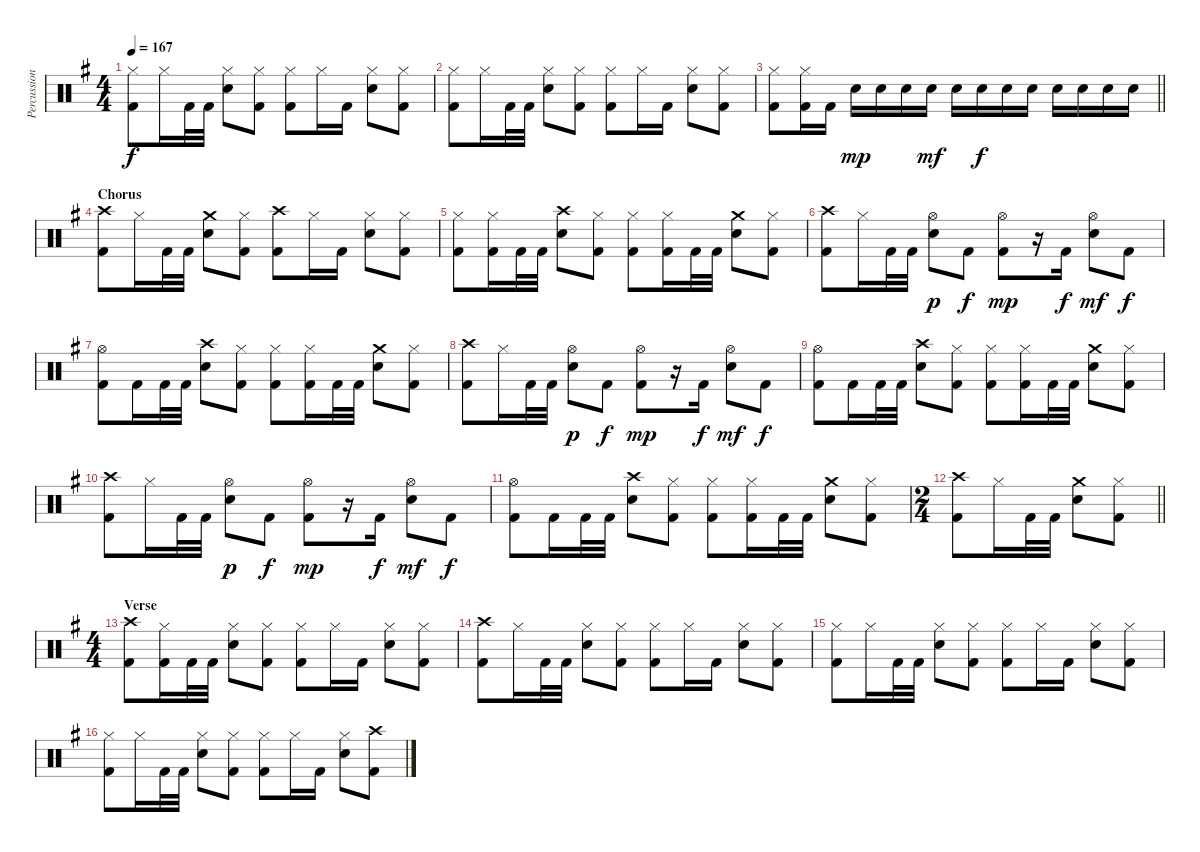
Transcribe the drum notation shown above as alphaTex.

\track ("Percussion" "Percussion") {instrument percussion}
\staff {score}
\articulation defaults
\ts (4 4)
\tempo 167
\clef neutral
\ks g
("Hi-Hat (closed)" "Kick (hit) 2").8{dy f} "Hi-Hat (closed)".16 "Kick (hit) 2".32 "Kick (hit) 2".32 ("Hi-Hat (closed)" "Snare (hit) 2").8 ("Hi-Hat (closed)" "Kick (hit) 2").8 ("Hi-Hat (closed)" "Kick (hit) 2").8 "Hi-Hat (closed)".16 "Kick (hit) 2".16 ("Hi-Hat (closed)" "Snare (hit) 2").8 ("Hi-Hat (closed)" "Kick (hit) 2").8 |
("Hi-Hat (closed)" "Kick (hit) 2").8 "Hi-Hat (closed)".16 "Kick (hit) 2".32 "Kick (hit) 2".32 ("Hi-Hat (closed)" "Snare (hit) 2").8 ("Hi-Hat (closed)" "Kick (hit) 2").8 ("Hi-Hat (closed)" "Kick (hit) 2").8 "Hi-Hat (closed)".16 "Kick (hit) 2".16 ("Hi-Hat (closed)" "Snare (hit) 2").8 ("Hi-Hat (closed)" "Kick (hit) 2").8 |
\barLineRight lightlight
("Hi-Hat (closed)" "Kick (hit) 2").8 ("Hi-Hat (closed)" "Kick (hit) 2").16 "Kick (hit) 2".16 "Snare (hit) 2".16{dy mp} "Snare (hit) 2".16 "Snare (hit) 2".16 "Snare (hit) 2".16{dy mf} "Snare (hit) 2".16 "Snare (hit) 2".16{dy f} "Snare (hit) 2".16 "Snare (hit) 2".16 "Snare (hit) 2".16 "Snare (hit) 2".16 "Snare (hit) 2".16 "Snare (hit) 2".16 |
\section ("" "Chorus")
("Crash high (hit)" "Kick (hit) 2").8 "Hi-Hat (closed)".16 "Kick (hit) 2".32 "Kick (hit) 2".32 ("Crash medium (hit)" "Snare (hit) 2").8 ("Hi-Hat (closed)" "Kick (hit) 2").8 ("Crash high (hit)" "Kick (hit) 2").8 "Hi-Hat (closed)".16 "Kick (hit) 2".16 ("Hi-Hat (closed)" "Snare (hit) 2").8 ("Hi-Hat (closed)" "Kick (hit) 2").8 |
("Hi-Hat (closed)" "Kick (hit) 2").8 ("Hi-Hat (closed)" "Kick (hit) 2").16 "Kick (hit) 2".32 "Kick (hit) 2".32 ("Crash high (hit)" "Snare (hit) 2").8 ("Hi-Hat (closed)" "Kick (hit) 2").8 ("Hi-Hat (closed)" "Kick (hit) 2").8 ("Hi-Hat (closed)" "Kick (hit) 2").16 "Kick (hit) 2".32 "Kick (hit) 2".32 ("Crash medium (hit)" "Snare (hit) 2").8 ("Hi-Hat (closed)" "Kick (hit) 2").8 |
("Crash high (hit)" "Kick (hit) 2").8 "Hi-Hat (closed)".16 "Kick (hit) 2".32 "Kick (hit) 2".32 ("Hi-Hat (open)" "Snare (hit) 2").8{dy p} "Kick (hit) 2".8{dy f} ("Hi-Hat (open)" "Kick (hit) 2").8{dy mp} r.16 "Kick (hit) 2".16{dy f} ("Hi-Hat (open)" "Snare (hit) 2").8{dy mf} "Kick (hit) 2".8{dy f} |
("Hi-Hat (open)" "Kick (hit) 2").8 "Kick (hit) 2".16 "Kick (hit) 2".32 "Kick (hit) 2".32 ("Crash high (hit)" "Snare (hit) 2").8 ("Hi-Hat (closed)" "Kick (hit) 2").8 ("Hi-Hat (closed)" "Kick (hit) 2").8 ("Hi-Hat (closed)" "Kick (hit) 2").16 "Kick (hit) 2".32 "Kick (hit) 2".32 ("Crash medium (hit)" "Snare (hit) 2").8 ("Hi-Hat (closed)" "Kick (hit) 2").8 |
("Crash high (hit)" "Kick (hit) 2").8 "Hi-Hat (closed)".16 "Kick (hit) 2".32 "Kick (hit) 2".32 ("Hi-Hat (open)" "Snare (hit) 2").8{dy p} "Kick (hit) 2".8{dy f} ("Hi-Hat (open)" "Kick (hit) 2").8{dy mp} r.16 "Kick (hit) 2".16{dy f} ("Hi-Hat (open)" "Snare (hit) 2").8{dy mf} "Kick (hit) 2".8{dy f} |
("Hi-Hat (open)" "Kick (hit) 2").8 "Kick (hit) 2".16 "Kick (hit) 2".32 "Kick (hit) 2".32 ("Crash high (hit)" "Snare (hit) 2").8 ("Hi-Hat (closed)" "Kick (hit) 2").8 ("Hi-Hat (closed)" "Kick (hit) 2").8 ("Hi-Hat (closed)" "Kick (hit) 2").16 "Kick (hit) 2".32 "Kick (hit) 2".32 ("Crash medium (hit)" "Snare (hit) 2").8 ("Hi-Hat (closed)" "Kick (hit) 2").8 |
("Crash high (hit)" "Kick (hit) 2").8 "Hi-Hat (closed)".16 "Kick (hit) 2".32 "Kick (hit) 2".32 ("Hi-Hat (open)" "Snare (hit) 2").8{dy p} "Kick (hit) 2".8{dy f} ("Hi-Hat (open)" "Kick (hit) 2").8{dy mp} r.16 "Kick (hit) 2".16{dy f} ("Hi-Hat (open)" "Snare (hit) 2").8{dy mf} "Kick (hit) 2".8{dy f} |
("Hi-Hat (open)" "Kick (hit) 2").8 "Kick (hit) 2".16 "Kick (hit) 2".32 "Kick (hit) 2".32 ("Crash high (hit)" "Snare (hit) 2").8 ("Hi-Hat (closed)" "Kick (hit) 2").8 ("Hi-Hat (closed)" "Kick (hit) 2").8 ("Hi-Hat (closed)" "Kick (hit) 2").16 "Kick (hit) 2".32 "Kick (hit) 2".32 ("Crash medium (hit)" "Snare (hit) 2").8 ("Hi-Hat (closed)" "Kick (hit) 2").8 |
\ts (2 4)
\barLineRight lightlight
("Crash high (hit)" "Kick (hit) 2").8 "Hi-Hat (closed)".16 "Kick (hit) 2".32 "Kick (hit) 2".32 ("Crash medium (hit)" "Snare (hit) 2").8 ("Hi-Hat (closed)" "Kick (hit) 2").8 |
\ts (4 4)
\section ("" "Verse")
("Crash high (hit)" "Kick (hit) 2").8 ("Hi-Hat (closed)" "Kick (hit) 2").16 "Kick (hit) 2".32 "Kick (hit) 2".32 ("Hi-Hat (closed)" "Snare (hit) 2").8 ("Hi-Hat (closed)" "Kick (hit) 2").8 ("Hi-Hat (closed)" "Kick (hit) 2").8 "Hi-Hat (closed)".16 "Kick (hit) 2".16 ("Hi-Hat (closed)" "Snare (hit) 2").8 ("Hi-Hat (closed)" "Kick (hit) 2").8 |
("Crash high (hit)" "Kick (hit) 2").8 "Hi-Hat (closed)".16 "Kick (hit) 2".32 "Kick (hit) 2".32 ("Hi-Hat (closed)" "Snare (hit) 2").8 ("Hi-Hat (closed)" "Kick (hit) 2").8 ("Hi-Hat (closed)" "Kick (hit) 2").8 "Hi-Hat (closed)".16 "Kick (hit) 2".16 ("Hi-Hat (closed)" "Snare (hit) 2").8 ("Hi-Hat (closed)" "Kick (hit) 2").8 |
("Hi-Hat (closed)" "Kick (hit) 2").8 "Hi-Hat (closed)".16 "Kick (hit) 2".32 "Kick (hit) 2".32 ("Hi-Hat (closed)" "Snare (hit) 2").8 ("Hi-Hat (closed)" "Kick (hit) 2").8 ("Hi-Hat (closed)" "Kick (hit) 2").8 "Hi-Hat (closed)".16 "Kick (hit) 2".16 ("Hi-Hat (closed)" "Snare (hit) 2").8 ("Hi-Hat (closed)" "Kick (hit) 2").8 |
("Hi-Hat (closed)" "Kick (hit) 2").8 "Hi-Hat (closed)".16 "Kick (hit) 2".32 "Kick (hit) 2".32 ("Hi-Hat (closed)" "Snare (hit) 2").8 ("Hi-Hat (closed)" "Kick (hit) 2").8 ("Hi-Hat (closed)" "Kick (hit) 2").8 "Hi-Hat (closed)".16 "Kick (hit) 2".16 ("Hi-Hat (closed)" "Snare (hit) 2").8 ("Crash high (hit)" "Kick (hit) 2").8
